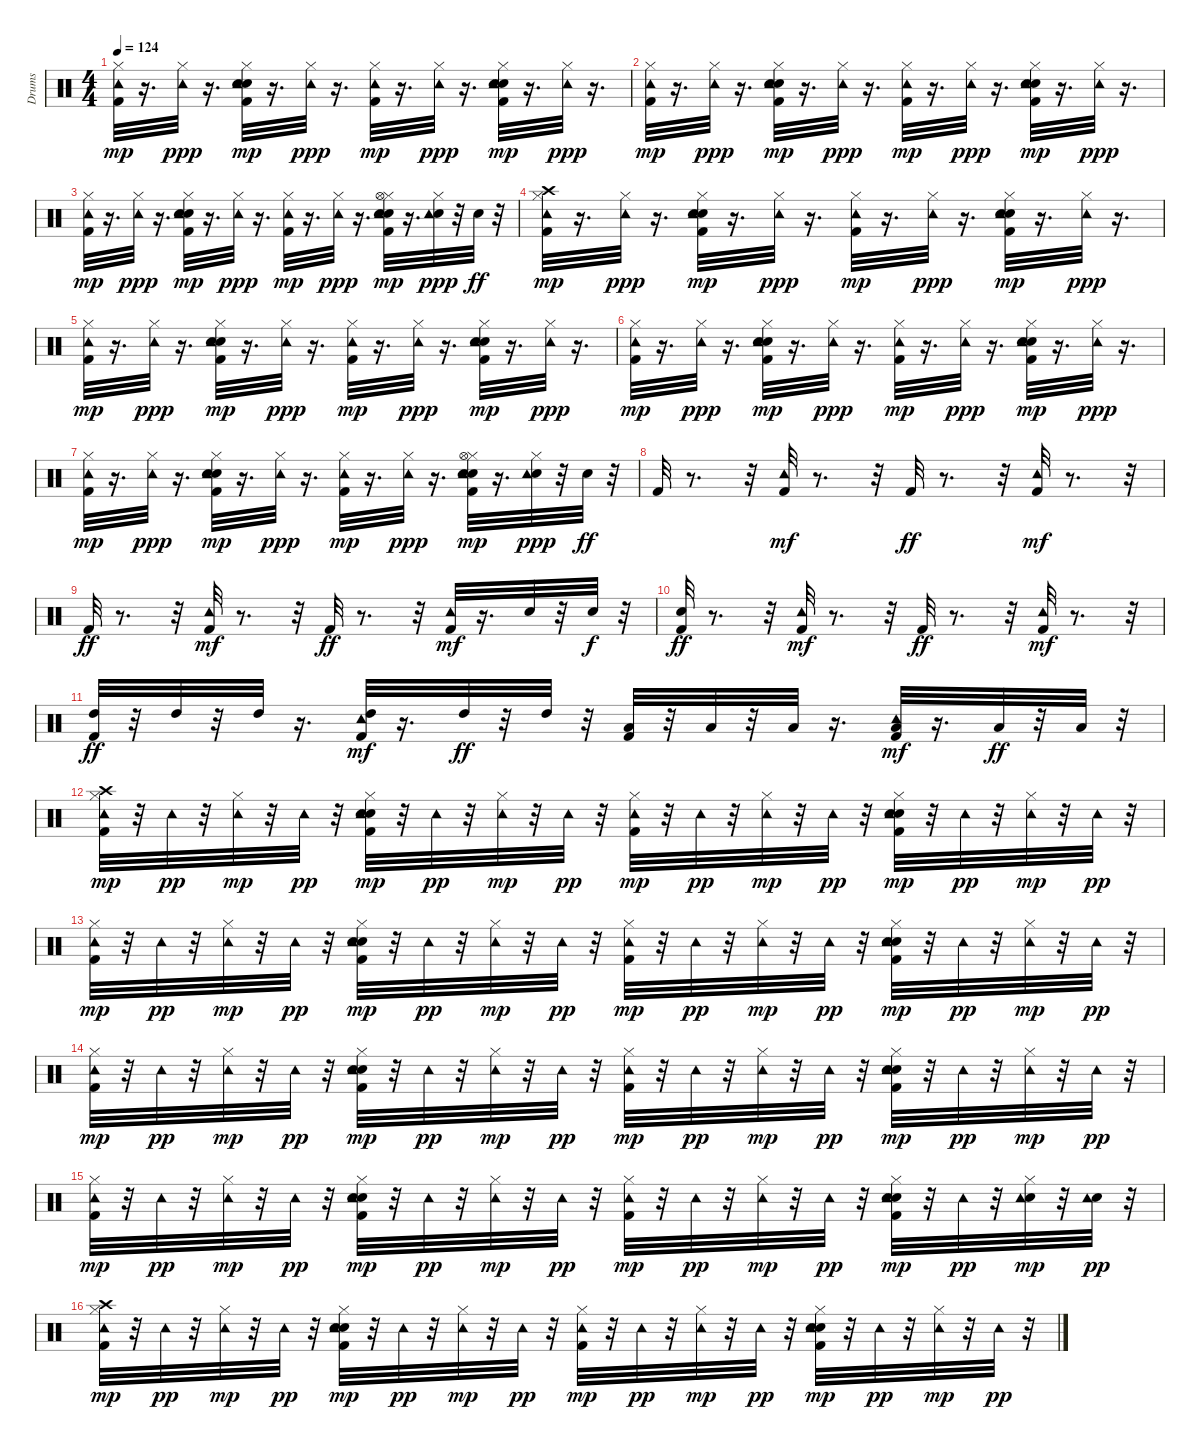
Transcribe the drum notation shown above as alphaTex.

\track ("Drums" "Drums") {instrument percussion}
\staff {score}
\articulation defaults
\ts (4 4)
\tempo 124
\clef neutral
\ks c
("Kick (hit) 2" "Hi-Hat (closed)" "Tambourine (hit)").32{dy mp} r.16{d} ("Hi-Hat (closed)" "Tambourine (hit)").32{dy ppp} r.16{d} ("Hand Clap (hit)" "Kick (hit) 2" "Electric Snare (hit)" "Hi-Hat (closed)" "Tambourine (hit)").32{dy mp} r.16{d} ("Hi-Hat (closed)" "Tambourine (hit)").32{dy ppp} r.16{d} ("Kick (hit) 2" "Hi-Hat (closed)" "Tambourine (hit)").32{dy mp} r.16{d} ("Hi-Hat (closed)" "Tambourine (hit)").32{dy ppp} r.16{d} ("Hand Clap (hit)" "Kick (hit) 2" "Electric Snare (hit)" "Hi-Hat (closed)" "Tambourine (hit)").32{dy mp} r.16{d} ("Hi-Hat (closed)" "Tambourine (hit)").32{dy ppp} r.16{d} |
("Kick (hit) 2" "Hi-Hat (closed)" "Tambourine (hit)").32{dy mp} r.16{d} ("Hi-Hat (closed)" "Tambourine (hit)").32{dy ppp} r.16{d} ("Hand Clap (hit)" "Kick (hit) 2" "Electric Snare (hit)" "Hi-Hat (closed)" "Tambourine (hit)").32{dy mp} r.16{d} ("Hi-Hat (closed)" "Tambourine (hit)").32{dy ppp} r.16{d} ("Kick (hit) 2" "Hi-Hat (closed)" "Tambourine (hit)").32{dy mp} r.16{d} ("Hi-Hat (closed)" "Tambourine (hit)").32{dy ppp} r.16{d} ("Hand Clap (hit)" "Kick (hit) 2" "Electric Snare (hit)" "Hi-Hat (closed)" "Tambourine (hit)").32{dy mp} r.16{d} ("Hi-Hat (closed)" "Tambourine (hit)").32{dy ppp} r.16{d} |
("Kick (hit) 2" "Hi-Hat (closed)" "Tambourine (hit)").32{dy mp} r.16{d} ("Hi-Hat (closed)" "Tambourine (hit)").32{dy ppp} r.16{d} ("Hand Clap (hit)" "Kick (hit) 2" "Electric Snare (hit)" "Hi-Hat (closed)" "Tambourine (hit)").32{dy mp} r.16{d} ("Hi-Hat (closed)" "Tambourine (hit)").32{dy ppp} r.16{d} ("Kick (hit) 2" "Hi-Hat (closed)" "Tambourine (hit)").32{dy mp} r.16{d} ("Hi-Hat (closed)" "Tambourine (hit)").32{dy ppp} r.16{d} ("Hand Clap (hit)" "Kick (hit) 2" "Electric Snare (hit)" "Hi-Hat (closed)" "Hi-Hat (open)" "Tambourine (hit)").32{dy mp} r.16{d} ("Electric Snare (hit)" "Hi-Hat (closed)" "Tambourine (hit)").32{dy ppp} r.32 "Electric Snare (hit)".32{dy ff} r.32 |
("Kick (hit) 2" "Hi-Hat (closed)" "Crash high (hit)" "Tambourine (hit)").32{dy mp} r.16{d} ("Hi-Hat (closed)" "Tambourine (hit)").32{dy ppp} r.16{d} ("Hand Clap (hit)" "Kick (hit) 2" "Electric Snare (hit)" "Hi-Hat (closed)" "Tambourine (hit)").32{dy mp} r.16{d} ("Hi-Hat (closed)" "Tambourine (hit)").32{dy ppp} r.16{d} ("Kick (hit) 2" "Hi-Hat (closed)" "Tambourine (hit)").32{dy mp} r.16{d} ("Hi-Hat (closed)" "Tambourine (hit)").32{dy ppp} r.16{d} ("Hand Clap (hit)" "Kick (hit) 2" "Electric Snare (hit)" "Hi-Hat (closed)" "Tambourine (hit)").32{dy mp} r.16{d} ("Hi-Hat (closed)" "Tambourine (hit)").32{dy ppp} r.16{d} |
("Kick (hit) 2" "Hi-Hat (closed)" "Tambourine (hit)").32{dy mp} r.16{d} ("Hi-Hat (closed)" "Tambourine (hit)").32{dy ppp} r.16{d} ("Hand Clap (hit)" "Kick (hit) 2" "Electric Snare (hit)" "Hi-Hat (closed)" "Tambourine (hit)").32{dy mp} r.16{d} ("Hi-Hat (closed)" "Tambourine (hit)").32{dy ppp} r.16{d} ("Kick (hit) 2" "Hi-Hat (closed)" "Tambourine (hit)").32{dy mp} r.16{d} ("Hi-Hat (closed)" "Tambourine (hit)").32{dy ppp} r.16{d} ("Hand Clap (hit)" "Kick (hit) 2" "Electric Snare (hit)" "Hi-Hat (closed)" "Tambourine (hit)").32{dy mp} r.16{d} ("Hi-Hat (closed)" "Tambourine (hit)").32{dy ppp} r.16{d} |
("Kick (hit) 2" "Hi-Hat (closed)" "Tambourine (hit)").32{dy mp} r.16{d} ("Hi-Hat (closed)" "Tambourine (hit)").32{dy ppp} r.16{d} ("Hand Clap (hit)" "Kick (hit) 2" "Electric Snare (hit)" "Hi-Hat (closed)" "Tambourine (hit)").32{dy mp} r.16{d} ("Hi-Hat (closed)" "Tambourine (hit)").32{dy ppp} r.16{d} ("Kick (hit) 2" "Hi-Hat (closed)" "Tambourine (hit)").32{dy mp} r.16{d} ("Hi-Hat (closed)" "Tambourine (hit)").32{dy ppp} r.16{d} ("Hand Clap (hit)" "Kick (hit) 2" "Electric Snare (hit)" "Hi-Hat (closed)" "Tambourine (hit)").32{dy mp} r.16{d} ("Hi-Hat (closed)" "Tambourine (hit)").32{dy ppp} r.16{d} |
("Kick (hit) 2" "Hi-Hat (closed)" "Tambourine (hit)").32{dy mp} r.16{d} ("Hi-Hat (closed)" "Tambourine (hit)").32{dy ppp} r.16{d} ("Hand Clap (hit)" "Kick (hit) 2" "Electric Snare (hit)" "Hi-Hat (closed)" "Tambourine (hit)").32{dy mp} r.16{d} ("Hi-Hat (closed)" "Tambourine (hit)").32{dy ppp} r.16{d} ("Kick (hit) 2" "Hi-Hat (closed)" "Tambourine (hit)").32{dy mp} r.16{d} ("Hi-Hat (closed)" "Tambourine (hit)").32{dy ppp} r.16{d} ("Hand Clap (hit)" "Kick (hit) 2" "Electric Snare (hit)" "Hi-Hat (closed)" "Hi-Hat (open)" "Tambourine (hit)").32{dy mp} r.16{d} ("Electric Snare (hit)" "Hi-Hat (closed)" "Tambourine (hit)").32{dy ppp} r.32 "Electric Snare (hit)".32{dy ff} r.32 |
"Kick (hit) 2".32 r.8{d} r.32 ("Kick (hit) 2" "Tambourine (hit)").32{dy mf} r.8{d} r.32 "Kick (hit) 2".32{dy ff} r.8{d} r.32 ("Kick (hit) 2" "Tambourine (hit)").32{dy mf} r.8{d} r.32 |
"Kick (hit) 2".32{dy ff} r.8{d} r.32 ("Kick (hit) 2" "Tambourine (hit)").32{dy mf} r.8{d} r.32 "Kick (hit) 2".32{dy ff} r.8{d} r.32 ("Kick (hit) 2" "Tambourine (hit)").32{dy mf} r.16{d} "Electric Snare (hit)".32 r.32 "Electric Snare (hit)".32{dy f} r.32 |
("Kick (hit) 2" "Electric Snare (hit)").32{dy ff} r.8{d} r.32 ("Kick (hit) 2" "Tambourine (hit)").32{dy mf} r.8{d} r.32 "Kick (hit) 2".32{dy ff} r.8{d} r.32 ("Kick (hit) 2" "Tambourine (hit)").32{dy mf} r.8{d} r.32 |
("Kick (hit) 2" "High Tom (hit)").32{dy ff} r.32 "High Tom (hit)".32 r.32 "High Tom (hit)".32 r.16{d} ("Kick (hit) 2" "High Tom (hit)" "Tambourine (hit)").32{dy mf} r.16{d} "High Tom (hit)".32{dy ff} r.32 "High Tom (hit)".32 r.32 ("Kick (hit) 2" "Low Tom (hit)").32 r.32 "Low Tom (hit)".32 r.32 "Low Floor Tom (hit)".32 r.16{d} ("Kick (hit) 2" "Low Floor Tom (hit)" "Tambourine (hit)").32{dy mf} r.16{d} "Low Floor Tom (hit)".32{dy ff} r.32 "Low Floor Tom (hit)".32 r.32 |
("Kick (hit) 2" "Hi-Hat (closed)" "Crash high (hit)" "Tambourine (hit)").32{dy mp} r.32 "Tambourine (hit)".32{dy pp} r.32 ("Hi-Hat (closed)" "Tambourine (hit)").32{dy mp} r.32 "Tambourine (hit)".32{dy pp} r.32 ("Hand Clap (hit)" "Kick (hit) 2" "Electric Snare (hit)" "Hi-Hat (closed)" "Tambourine (hit)").32{dy mp} r.32 "Tambourine (hit)".32{dy pp} r.32 ("Hi-Hat (closed)" "Tambourine (hit)").32{dy mp} r.32 "Tambourine (hit)".32{dy pp} r.32 ("Kick (hit) 2" "Hi-Hat (closed)" "Tambourine (hit)").32{dy mp} r.32 "Tambourine (hit)".32{dy pp} r.32 ("Hi-Hat (closed)" "Tambourine (hit)").32{dy mp} r.32 "Tambourine (hit)".32{dy pp} r.32 ("Hand Clap (hit)" "Kick (hit) 2" "Electric Snare (hit)" "Hi-Hat (closed)" "Tambourine (hit)").32{dy mp} r.32 "Tambourine (hit)".32{dy pp} r.32 ("Hi-Hat (closed)" "Tambourine (hit)").32{dy mp} r.32 "Tambourine (hit)".32{dy pp} r.32 |
("Kick (hit) 2" "Hi-Hat (closed)" "Tambourine (hit)").32{dy mp} r.32 "Tambourine (hit)".32{dy pp} r.32 ("Hi-Hat (closed)" "Tambourine (hit)").32{dy mp} r.32 "Tambourine (hit)".32{dy pp} r.32 ("Hand Clap (hit)" "Kick (hit) 2" "Electric Snare (hit)" "Hi-Hat (closed)" "Tambourine (hit)").32{dy mp} r.32 "Tambourine (hit)".32{dy pp} r.32 ("Hi-Hat (closed)" "Tambourine (hit)").32{dy mp} r.32 "Tambourine (hit)".32{dy pp} r.32 ("Kick (hit) 2" "Hi-Hat (closed)" "Tambourine (hit)").32{dy mp} r.32 "Tambourine (hit)".32{dy pp} r.32 ("Hi-Hat (closed)" "Tambourine (hit)").32{dy mp} r.32 "Tambourine (hit)".32{dy pp} r.32 ("Hand Clap (hit)" "Kick (hit) 2" "Electric Snare (hit)" "Hi-Hat (closed)" "Tambourine (hit)").32{dy mp} r.32 "Tambourine (hit)".32{dy pp} r.32 ("Hi-Hat (closed)" "Tambourine (hit)").32{dy mp} r.32 "Tambourine (hit)".32{dy pp} r.32 |
("Kick (hit) 2" "Hi-Hat (closed)" "Tambourine (hit)").32{dy mp} r.32 "Tambourine (hit)".32{dy pp} r.32 ("Hi-Hat (closed)" "Tambourine (hit)").32{dy mp} r.32 "Tambourine (hit)".32{dy pp} r.32 ("Hand Clap (hit)" "Kick (hit) 2" "Electric Snare (hit)" "Hi-Hat (closed)" "Tambourine (hit)").32{dy mp} r.32 "Tambourine (hit)".32{dy pp} r.32 ("Hi-Hat (closed)" "Tambourine (hit)").32{dy mp} r.32 "Tambourine (hit)".32{dy pp} r.32 ("Kick (hit) 2" "Hi-Hat (closed)" "Tambourine (hit)").32{dy mp} r.32 "Tambourine (hit)".32{dy pp} r.32 ("Hi-Hat (closed)" "Tambourine (hit)").32{dy mp} r.32 "Tambourine (hit)".32{dy pp} r.32 ("Hand Clap (hit)" "Kick (hit) 2" "Electric Snare (hit)" "Hi-Hat (closed)" "Tambourine (hit)").32{dy mp} r.32 "Tambourine (hit)".32{dy pp} r.32 ("Hi-Hat (closed)" "Tambourine (hit)").32{dy mp} r.32 "Tambourine (hit)".32{dy pp} r.32 |
("Kick (hit) 2" "Hi-Hat (closed)" "Tambourine (hit)").32{dy mp} r.32 "Tambourine (hit)".32{dy pp} r.32 ("Hi-Hat (closed)" "Tambourine (hit)").32{dy mp} r.32 "Tambourine (hit)".32{dy pp} r.32 ("Hand Clap (hit)" "Kick (hit) 2" "Electric Snare (hit)" "Hi-Hat (closed)" "Tambourine (hit)").32{dy mp} r.32 "Tambourine (hit)".32{dy pp} r.32 ("Hi-Hat (closed)" "Tambourine (hit)").32{dy mp} r.32 "Tambourine (hit)".32{dy pp} r.32 ("Kick (hit) 2" "Hi-Hat (closed)" "Tambourine (hit)").32{dy mp} r.32 "Tambourine (hit)".32{dy pp} r.32 ("Hi-Hat (closed)" "Tambourine (hit)").32{dy mp} r.32 "Tambourine (hit)".32{dy pp} r.32 ("Hand Clap (hit)" "Kick (hit) 2" "Electric Snare (hit)" "Hi-Hat (closed)" "Tambourine (hit)").32{dy mp} r.32 "Tambourine (hit)".32{dy pp} r.32 ("Electric Snare (hit)" "Hi-Hat (closed)" "Tambourine (hit)").32{dy mp} r.32 ("Electric Snare (hit)" "Tambourine (hit)").32{dy pp} r.32 |
("Kick (hit) 2" "Hi-Hat (closed)" "Crash high (hit)" "Tambourine (hit)").32{dy mp} r.32 "Tambourine (hit)".32{dy pp} r.32 ("Hi-Hat (closed)" "Tambourine (hit)").32{dy mp} r.32 "Tambourine (hit)".32{dy pp} r.32 ("Hand Clap (hit)" "Kick (hit) 2" "Electric Snare (hit)" "Hi-Hat (closed)" "Tambourine (hit)").32{dy mp} r.32 "Tambourine (hit)".32{dy pp} r.32 ("Hi-Hat (closed)" "Tambourine (hit)").32{dy mp} r.32 "Tambourine (hit)".32{dy pp} r.32 ("Kick (hit) 2" "Hi-Hat (closed)" "Tambourine (hit)").32{dy mp} r.32 "Tambourine (hit)".32{dy pp} r.32 ("Hi-Hat (closed)" "Tambourine (hit)").32{dy mp} r.32 "Tambourine (hit)".32{dy pp} r.32 ("Hand Clap (hit)" "Kick (hit) 2" "Electric Snare (hit)" "Hi-Hat (closed)" "Tambourine (hit)").32{dy mp} r.32 "Tambourine (hit)".32{dy pp} r.32 ("Hi-Hat (closed)" "Tambourine (hit)").32{dy mp} r.32 "Tambourine (hit)".32{dy pp} r.32
